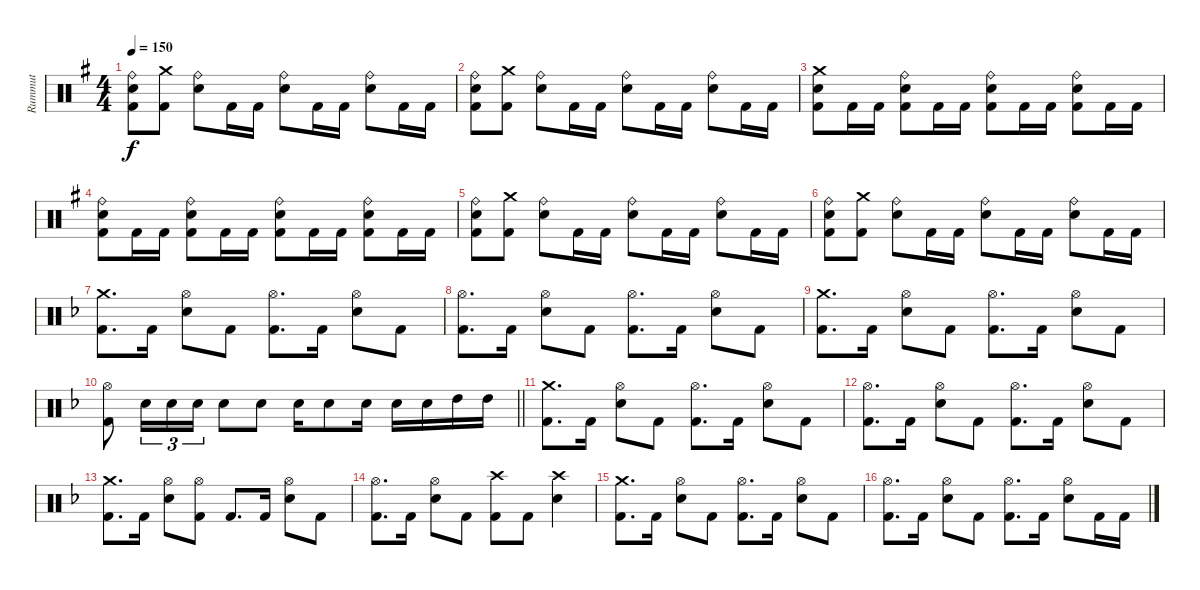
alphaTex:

\track ("Rummut" "Rummut") {instrument percussion}
\staff {score}
\articulation defaults
\ts (4 4)
\tempo 150
\clef neutral
\ks g
("Ride (bell)" "Snare (hit) 2" "Kick (hit) 2").8{dy f} ("Crash medium (hit)" "Kick (hit) 2").8 ("Ride (bell)" "Snare (hit) 2").8 "Kick (hit) 2".16 "Kick (hit) 2".16 ("Ride (bell)" "Snare (hit) 2").8 "Kick (hit) 2".16 "Kick (hit) 2".16 ("Ride (bell)" "Snare (hit) 2").8 "Kick (hit) 2".16 "Kick (hit) 2".16 |
("Ride (bell)" "Snare (hit) 2" "Kick (hit) 2").8 ("Crash medium (hit)" "Kick (hit) 2").8 ("Ride (bell)" "Snare (hit) 2").8 "Kick (hit) 2".16 "Kick (hit) 2".16 ("Ride (bell)" "Snare (hit) 2").8 "Kick (hit) 2".16 "Kick (hit) 2".16 ("Ride (bell)" "Snare (hit) 2").8 "Kick (hit) 2".16 "Kick (hit) 2".16 |
("Crash medium (hit)" "Snare (hit) 2" "Kick (hit) 2").8 "Kick (hit) 2".16 "Kick (hit) 2".16 ("Ride (bell)" "Snare (hit) 2" "Kick (hit) 2").8 "Kick (hit) 2".16 "Kick (hit) 2".16 ("Ride (bell)" "Snare (hit) 2" "Kick (hit) 2").8 "Kick (hit) 2".16 "Kick (hit) 2".16 ("Ride (bell)" "Snare (hit) 2" "Kick (hit) 2").8 "Kick (hit) 2".16 "Kick (hit) 2".16 |
("Ride (bell)" "Snare (hit) 2" "Kick (hit) 2").8 "Kick (hit) 2".16 "Kick (hit) 2".16 ("Ride (bell)" "Snare (hit) 2" "Kick (hit) 2").8 "Kick (hit) 2".16 "Kick (hit) 2".16 ("Ride (bell)" "Snare (hit) 2" "Kick (hit) 2").8 "Kick (hit) 2".16 "Kick (hit) 2".16 ("Ride (bell)" "Snare (hit) 2" "Kick (hit) 2").8 "Kick (hit) 2".16 "Kick (hit) 2".16 |
("Ride (bell)" "Snare (hit) 2" "Kick (hit) 2").8 ("Crash medium (hit)" "Kick (hit) 2").8 ("Ride (bell)" "Snare (hit) 2").8 "Kick (hit) 2".16 "Kick (hit) 2".16 ("Ride (bell)" "Snare (hit) 2").8 "Kick (hit) 2".16 "Kick (hit) 2".16 ("Ride (bell)" "Snare (hit) 2").8 "Kick (hit) 2".16 "Kick (hit) 2".16 |
("Ride (bell)" "Snare (hit) 2" "Kick (hit) 2").8 ("Crash medium (hit)" "Kick (hit) 2").8 ("Ride (bell)" "Snare (hit) 2").8 "Kick (hit) 2".16 "Kick (hit) 2".16 ("Ride (bell)" "Snare (hit) 2").8 "Kick (hit) 2".16 "Kick (hit) 2".16 ("Ride (bell)" "Snare (hit) 2").8 "Kick (hit) 2".16 "Kick (hit) 2".16 |
\ks dminor
("Crash medium (hit)" "Kick (hit) 2").8{d} "Kick (hit) 2".16 ("Hi-Hat (open)" "Snare (hit) 2").8 "Kick (hit) 2".8 ("Hi-Hat (open)" "Kick (hit) 2").8{d} "Kick (hit) 2".16 ("Hi-Hat (open)" "Snare (hit) 2").8 "Kick (hit) 2".8 |
("Hi-Hat (open)" "Kick (hit) 2").8{d} "Kick (hit) 2".16 ("Hi-Hat (open)" "Snare (hit) 2").8 "Kick (hit) 2".8 ("Hi-Hat (open)" "Kick (hit) 2").8{d} "Kick (hit) 2".16 ("Hi-Hat (open)" "Snare (hit) 2").8 "Kick (hit) 2".8 |
("Crash medium (hit)" "Kick (hit) 2").8{d} "Kick (hit) 2".16 ("Hi-Hat (open)" "Snare (hit) 2").8 "Kick (hit) 2".8 ("Hi-Hat (open)" "Kick (hit) 2").8{d} "Kick (hit) 2".16 ("Hi-Hat (open)" "Snare (hit) 2").8 "Kick (hit) 2".8 |
\barLineRight lightlight
("Hi-Hat (open)" "Kick (hit) 2").8 "Snare (hit) 2".16{tu (3 2)} "Snare (hit) 2".16{tu (3 2)} "Snare (hit) 2".16{tu (3 2)} "Snare (hit) 2".8 "Snare (hit) 2".8 "Snare (hit) 2".16 "Snare (hit) 2".8 "Snare (hit) 2".16 "Snare (hit) 2".16 "Snare (hit) 2".16 "High Tom (hit)".16 "High Tom (hit)".16 |
("Crash medium (hit)" "Kick (hit) 2").8{d} "Kick (hit) 2".16 ("Hi-Hat (open)" "Snare (hit) 2").8 "Kick (hit) 2".8 ("Hi-Hat (open)" "Kick (hit) 2").8{d} "Kick (hit) 2".16 ("Hi-Hat (open)" "Snare (hit) 2").8 "Kick (hit) 2".8 |
("Hi-Hat (open)" "Kick (hit) 2").8{d} "Kick (hit) 2".16 ("Hi-Hat (open)" "Snare (hit) 2").8 "Kick (hit) 2".8 ("Hi-Hat (open)" "Kick (hit) 2").8{d} "Kick (hit) 2".16 ("Hi-Hat (open)" "Snare (hit) 2").8 "Kick (hit) 2".8 |
("Crash medium (hit)" "Kick (hit) 2").8{d} "Kick (hit) 2".16 ("Hi-Hat (open)" "Snare (hit) 2").8 ("Hi-Hat (open)" "Kick (hit) 2").8 "Kick (hit) 2".8{d} "Kick (hit) 2".16 ("Hi-Hat (open)" "Snare (hit) 2").8 "Kick (hit) 2".8 |
("Hi-Hat (open)" "Kick (hit) 2").8{d} "Kick (hit) 2".16 ("Hi-Hat (open)" "Snare (hit) 2").8 "Kick (hit) 2".8 ("Crash high (hit)" "Kick (hit) 2").8 "Kick (hit) 2".8 ("Crash high (hit)" "Snare (hit) 2").4 |
("Crash medium (hit)" "Kick (hit) 2").8{d} "Kick (hit) 2".16 ("Hi-Hat (open)" "Snare (hit) 2").8 "Kick (hit) 2".8 ("Hi-Hat (open)" "Kick (hit) 2").8{d} "Kick (hit) 2".16 ("Hi-Hat (open)" "Snare (hit) 2").8 "Kick (hit) 2".8 |
("Hi-Hat (open)" "Kick (hit) 2").8{d} "Kick (hit) 2".16 ("Hi-Hat (open)" "Snare (hit) 2").8 "Kick (hit) 2".8 ("Hi-Hat (open)" "Kick (hit) 2").8{d} "Kick (hit) 2".16 ("Hi-Hat (open)" "Snare (hit) 2").8 "Kick (hit) 2".16 "Kick (hit) 2".16
